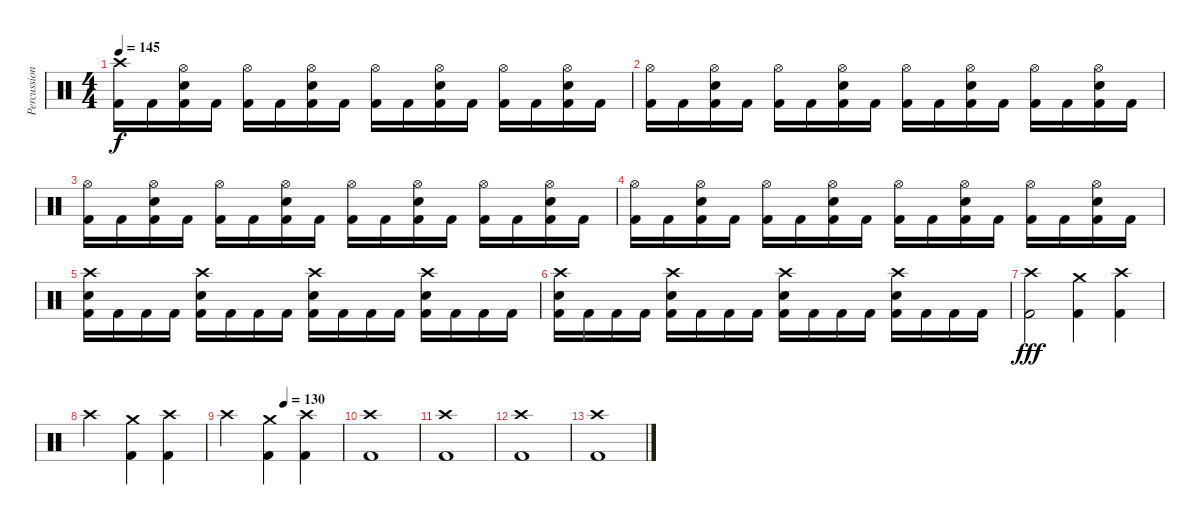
\track ("Percussioni" "Percussion") {instrument percussion}
\staff {score}
\articulation defaults
\ts (4 4)
\tempo 145
\clef neutral
\ks c
("Crash high (hit)" "Kick (hit) 2").16{dy f} "Kick (hit) 2".16 ("Hi-Hat (open)" "Kick (hit) 2" "Snare (hit) 2").16 "Kick (hit) 2".16 ("Hi-Hat (open)" "Kick (hit) 2").16 "Kick (hit) 2".16 ("Hi-Hat (open)" "Kick (hit) 2" "Snare (hit) 2").16 "Kick (hit) 2".16 ("Hi-Hat (open)" "Kick (hit) 2").16 "Kick (hit) 2".16 ("Hi-Hat (open)" "Kick (hit) 2" "Snare (hit) 2").16 "Kick (hit) 2".16 ("Hi-Hat (open)" "Kick (hit) 2").16 "Kick (hit) 2".16 ("Hi-Hat (open)" "Kick (hit) 2" "Snare (hit) 2").16 "Kick (hit) 2".16 |
("Hi-Hat (open)" "Kick (hit) 2").16 "Kick (hit) 2".16 ("Hi-Hat (open)" "Kick (hit) 2" "Snare (hit) 2").16 "Kick (hit) 2".16 ("Hi-Hat (open)" "Kick (hit) 2").16 "Kick (hit) 2".16 ("Hi-Hat (open)" "Kick (hit) 2" "Snare (hit) 2").16 "Kick (hit) 2".16 ("Hi-Hat (open)" "Kick (hit) 2").16 "Kick (hit) 2".16 ("Hi-Hat (open)" "Kick (hit) 2" "Snare (hit) 2").16 "Kick (hit) 2".16 ("Hi-Hat (open)" "Kick (hit) 2").16 "Kick (hit) 2".16 ("Hi-Hat (open)" "Kick (hit) 2" "Snare (hit) 2").16 "Kick (hit) 2".16 |
("Hi-Hat (open)" "Kick (hit) 2").16 "Kick (hit) 2".16 ("Hi-Hat (open)" "Kick (hit) 2" "Snare (hit) 2").16 "Kick (hit) 2".16 ("Hi-Hat (open)" "Kick (hit) 2").16 "Kick (hit) 2".16 ("Hi-Hat (open)" "Kick (hit) 2" "Snare (hit) 2").16 "Kick (hit) 2".16 ("Hi-Hat (open)" "Kick (hit) 2").16 "Kick (hit) 2".16 ("Hi-Hat (open)" "Kick (hit) 2" "Snare (hit) 2").16 "Kick (hit) 2".16 ("Hi-Hat (open)" "Kick (hit) 2").16 "Kick (hit) 2".16 ("Hi-Hat (open)" "Kick (hit) 2" "Snare (hit) 2").16 "Kick (hit) 2".16 |
("Hi-Hat (open)" "Kick (hit) 2").16 "Kick (hit) 2".16 ("Hi-Hat (open)" "Kick (hit) 2" "Snare (hit) 2").16 "Kick (hit) 2".16 ("Hi-Hat (open)" "Kick (hit) 2").16 "Kick (hit) 2".16 ("Hi-Hat (open)" "Kick (hit) 2" "Snare (hit) 2").16 "Kick (hit) 2".16 ("Hi-Hat (open)" "Kick (hit) 2").16 "Kick (hit) 2".16 ("Hi-Hat (open)" "Kick (hit) 2" "Snare (hit) 2").16 "Kick (hit) 2".16 ("Hi-Hat (open)" "Kick (hit) 2").16 "Kick (hit) 2".16 ("Hi-Hat (open)" "Kick (hit) 2" "Snare (hit) 2").16 "Kick (hit) 2".16 |
("Crash high (hit)" "Kick (hit) 2" "Snare (hit) 2").16 "Kick (hit) 2".16 "Kick (hit) 2".16 "Kick (hit) 2".16 ("Crash high (hit)" "Kick (hit) 2" "Snare (hit) 2").16 "Kick (hit) 2".16 "Kick (hit) 2".16 "Kick (hit) 2".16 ("Crash high (hit)" "Kick (hit) 2" "Snare (hit) 2").16 "Kick (hit) 2".16 "Kick (hit) 2".16 "Kick (hit) 2".16 ("Crash high (hit)" "Kick (hit) 2" "Snare (hit) 2").16 "Kick (hit) 2".16 "Kick (hit) 2".16 "Kick (hit) 2".16 |
("Crash high (hit)" "Kick (hit) 2" "Snare (hit) 2").16 "Kick (hit) 2".16 "Kick (hit) 2".16 "Kick (hit) 2".16 ("Crash high (hit)" "Kick (hit) 2" "Snare (hit) 2").16 "Kick (hit) 2".16 "Kick (hit) 2".16 "Kick (hit) 2".16 ("Crash high (hit)" "Kick (hit) 2" "Snare (hit) 2").16 "Kick (hit) 2".16 "Kick (hit) 2".16 "Kick (hit) 2".16 ("Crash high (hit)" "Kick (hit) 2" "Snare (hit) 2").16 "Kick (hit) 2".16 "Kick (hit) 2".16 "Kick (hit) 2".16 |
("Crash high (hit)" "Kick (hit) 2").2{dy fff} ("Crash medium (hit)" "Kick (hit) 2").4 ("Crash high (hit)" "Kick (hit) 2").4 |
"Crash high (hit)".2 ("Crash medium (hit)" "Kick (hit) 2").4 ("Crash high (hit)" "Kick (hit) 2").4 |
\tempo (130 0.5)
"Crash high (hit)".2 ("Crash medium (hit)" "Kick (hit) 2").4 ("Crash high (hit)" "Kick (hit) 2").4 |
("Crash high (hit)" "Kick (hit) 2").1 |
("Crash high (hit)" "Kick (hit) 2").1 |
("Crash high (hit)" "Kick (hit) 2").1 |
("Crash high (hit)" "Kick (hit) 2").1
